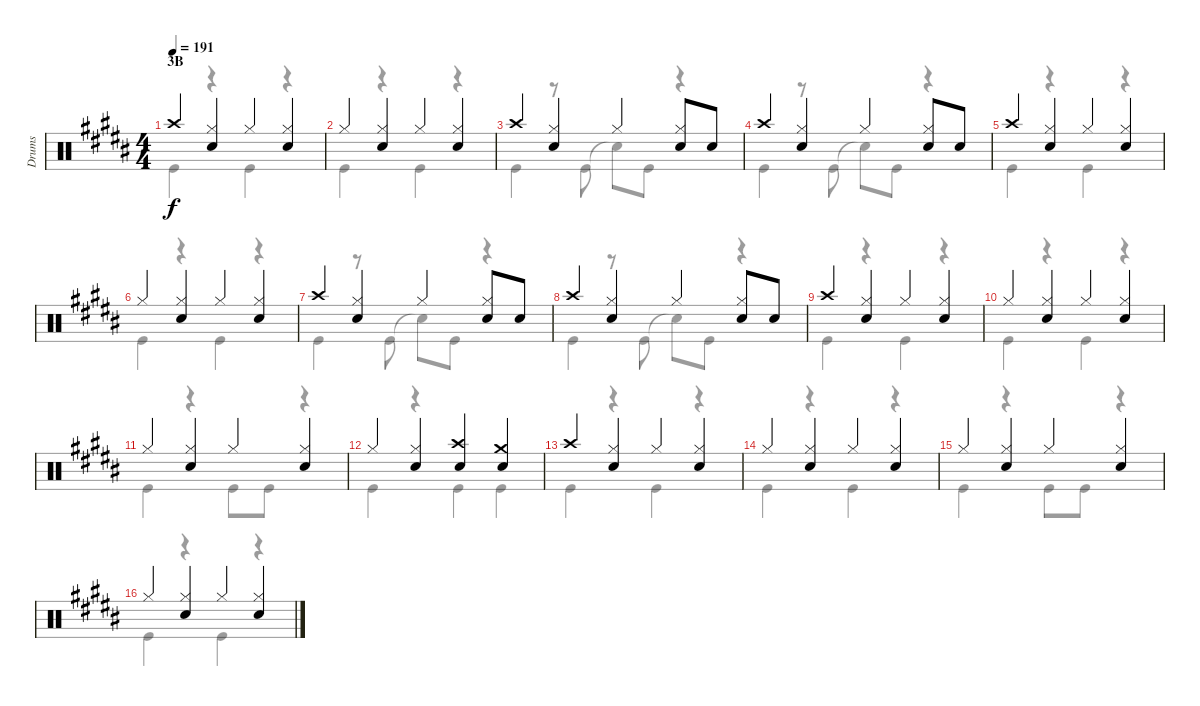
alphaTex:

\track ("Drums" "Drums") {instrument percussion}
\staff {score}
\articulation defaults
\voice
\ts (4 4)
\section ("" "3B")
\tempo 191
\clef neutral
\ks b "Crash high (hit)".4{dy f}
("Hi-Hat (closed)" "Snare (hit) 2").4 "Hi-Hat (closed)".4 ("Hi-Hat (closed)" "Snare (hit) 2").4 |
"Hi-Hat (closed)".4 ("Hi-Hat (closed)" "Snare (hit) 2").4 "Hi-Hat (closed)".4 ("Hi-Hat (closed)" "Snare (hit) 2").4 |
"Crash high (hit)".4 ("Hi-Hat (closed)" "Snare (hit) 2").4 "Hi-Hat (closed)".4 ("Hi-Hat (closed)" "Snare (hit) 2").8 "Snare (hit) 2".8 |
"Crash high (hit)".4 ("Hi-Hat (closed)" "Snare (hit) 2").4 "Hi-Hat (closed)".4 ("Hi-Hat (closed)" "Snare (hit) 2").8 "Snare (hit) 2".8 |
"Crash high (hit)".4 ("Hi-Hat (closed)" "Snare (hit) 2").4 "Hi-Hat (closed)".4 ("Hi-Hat (closed)" "Snare (hit) 2").4 |
"Hi-Hat (closed)".4 ("Hi-Hat (closed)" "Snare (hit) 2").4 "Hi-Hat (closed)".4 ("Hi-Hat (closed)" "Snare (hit) 2").4 |
"Crash high (hit)".4 ("Hi-Hat (closed)" "Snare (hit) 2").4 "Hi-Hat (closed)".4 ("Hi-Hat (closed)" "Snare (hit) 2").8 "Snare (hit) 2".8 |
"Crash high (hit)".4 ("Hi-Hat (closed)" "Snare (hit) 2").4 "Hi-Hat (closed)".4 ("Hi-Hat (closed)" "Snare (hit) 2").8 "Snare (hit) 2".8 |
"Crash high (hit)".4 ("Hi-Hat (closed)" "Snare (hit) 2").4 "Hi-Hat (closed)".4 ("Hi-Hat (closed)" "Snare (hit) 2").4 |
"Hi-Hat (closed)".4 ("Hi-Hat (closed)" "Snare (hit) 2").4 "Hi-Hat (closed)".4 ("Hi-Hat (closed)" "Snare (hit) 2").4 |
"Hi-Hat (closed)".4 ("Hi-Hat (closed)" "Snare (hit) 2").4 "Hi-Hat (closed)".4 ("Hi-Hat (closed)" "Snare (hit) 2").4 |
"Hi-Hat (closed)".4 ("Hi-Hat (closed)" "Snare (hit) 2").4 ("Crash high (hit)" "Snare (hit) 2").4 ("Crash medium (hit)" "Snare (hit) 2").4 |
"Crash high (hit)".4 ("Hi-Hat (closed)" "Snare (hit) 2").4 "Hi-Hat (closed)".4 ("Hi-Hat (closed)" "Snare (hit) 2").4 |
"Hi-Hat (closed)".4 ("Hi-Hat (closed)" "Snare (hit) 2").4 "Hi-Hat (closed)".4 ("Hi-Hat (closed)" "Snare (hit) 2").4 |
"Hi-Hat (closed)".4 ("Hi-Hat (closed)" "Snare (hit) 2").4 "Hi-Hat (closed)".4 ("Hi-Hat (closed)" "Snare (hit) 2").4 |
"Hi-Hat (closed)".4 ("Hi-Hat (closed)" "Snare (hit) 2").4 "Hi-Hat (closed)".4 ("Hi-Hat (closed)" "Snare (hit) 2").4
\voice
\clef neutral
\ottava regular
\simile none
\ks b "Kick (hit)".4{dy f}
r.4 "Kick (hit)".4 r.4 |
"Kick (hit)".4 r.4 "Kick (hit)".4 r.4 |
"Kick (hit)".4 r.8 "Kick (hit)".8 "Snare (hit)"{t}.8 "Kick (hit)".8 r.4 |
"Kick (hit)".4 r.8 "Kick (hit)".8 "Snare (hit)"{t}.8 "Kick (hit)".8 r.4 |
"Kick (hit)".4 r.4 "Kick (hit)".4 r.4 |
"Kick (hit)".4 r.4 "Kick (hit)".4 r.4 |
"Kick (hit)".4 r.8 "Kick (hit)".8 "Snare (hit)"{t}.8 "Kick (hit)".8 r.4 |
"Kick (hit)".4 r.8 "Kick (hit)".8 "Snare (hit)"{t}.8 "Kick (hit)".8 r.4 |
"Kick (hit)".4 r.4 "Kick (hit)".4 r.4 |
"Kick (hit)".4 r.4 "Kick (hit)".4 r.4 |
"Kick (hit)".4 r.4 "Kick (hit)".8 "Kick (hit)".8 r.4 |
"Kick (hit)".4 r.4 "Kick (hit)".4 "Kick (hit)".4 |
"Kick (hit)".4 r.4 "Kick (hit)".4 r.4 |
"Kick (hit)".4 r.4 "Kick (hit)".4 r.4 |
"Kick (hit)".4 r.4 "Kick (hit)".8 "Kick (hit)".8 r.4 |
"Kick (hit)".4 r.4 "Kick (hit)".4 r.4
